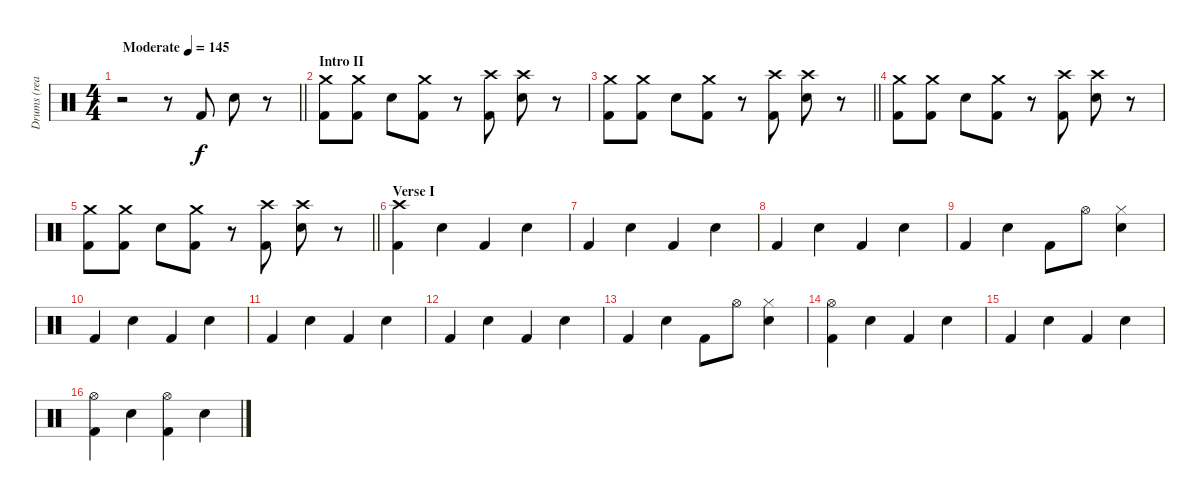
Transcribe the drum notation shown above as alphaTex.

\track ("Drums (real)" "Drums (rea") {instrument percussion}
\staff {score}
\articulation defaults
\ts (4 4)
\tempo (145 "Moderate")
\clef neutral
\barLineRight lightlight
\ks c
r.2{dy f} r.8 "Kick (hit) 2".8 "Snare (hit) 2".8 r.8 |
\section ("" "Intro II")
("Crash medium (hit)" "Kick (hit) 2").8 ("Crash medium (hit)" "Kick (hit) 2").8 "Snare (hit) 2".8 ("Crash medium (hit)" "Kick (hit) 2").8 r.8 ("Crash high (hit)" "Kick (hit) 2").8 ("Crash high (hit)" "Snare (hit) 2").8 r.8 |
\barLineRight lightlight
("Crash medium (hit)" "Kick (hit) 2").8 ("Crash medium (hit)" "Kick (hit) 2").8 "Snare (hit) 2".8 ("Crash medium (hit)" "Kick (hit) 2").8 r.8 ("Crash high (hit)" "Kick (hit) 2").8 ("Crash high (hit)" "Snare (hit) 2").8 r.8 |
("Crash medium (hit)" "Kick (hit) 2").8 ("Crash medium (hit)" "Kick (hit) 2").8 "Snare (hit) 2".8 ("Crash medium (hit)" "Kick (hit) 2").8 r.8 ("Crash high (hit)" "Kick (hit) 2").8 ("Crash high (hit)" "Snare (hit) 2").8 r.8 |
\barLineRight lightlight
("Crash medium (hit)" "Kick (hit) 2").8 ("Crash medium (hit)" "Kick (hit) 2").8 "Snare (hit) 2".8 ("Crash medium (hit)" "Kick (hit) 2").8 r.8 ("Crash high (hit)" "Kick (hit) 2").8 ("Crash high (hit)" "Snare (hit) 2").8 r.8 |
\section ("" "Verse I")
("Crash high (hit)" "Kick (hit) 2").4 "Snare (hit) 2".4 "Kick (hit) 2".4 "Snare (hit) 2".4 |
"Kick (hit) 2".4 "Snare (hit) 2".4 "Kick (hit) 2".4 "Snare (hit) 2".4 |
"Kick (hit) 2".4 "Snare (hit) 2".4 "Kick (hit) 2".4 "Snare (hit) 2".4 |
"Kick (hit) 2".4 "Snare (hit) 2".4 "Kick (hit) 2".8 "Hi-Hat (open)".8 ("Hi-Hat (closed)" "Snare (hit) 2").4 |
"Kick (hit) 2".4 "Snare (hit) 2".4 "Kick (hit) 2".4 "Snare (hit) 2".4 |
"Kick (hit) 2".4 "Snare (hit) 2".4 "Kick (hit) 2".4 "Snare (hit) 2".4 |
"Kick (hit) 2".4 "Snare (hit) 2".4 "Kick (hit) 2".4 "Snare (hit) 2".4 |
"Kick (hit) 2".4 "Snare (hit) 2".4 "Kick (hit) 2".8 "Hi-Hat (open)".8 ("Hi-Hat (closed)" "Snare (hit) 2").4 |
("Hi-Hat (open)" "Kick (hit) 2").4 "Snare (hit) 2".4 "Kick (hit) 2".4 "Snare (hit) 2".4 |
"Kick (hit) 2".4 "Snare (hit) 2".4 "Kick (hit) 2".4 "Snare (hit) 2".4 |
("Hi-Hat (open)" "Kick (hit) 2").4 "Snare (hit) 2".4 ("Hi-Hat (open)" "Kick (hit) 2").4 "Snare (hit) 2".4
